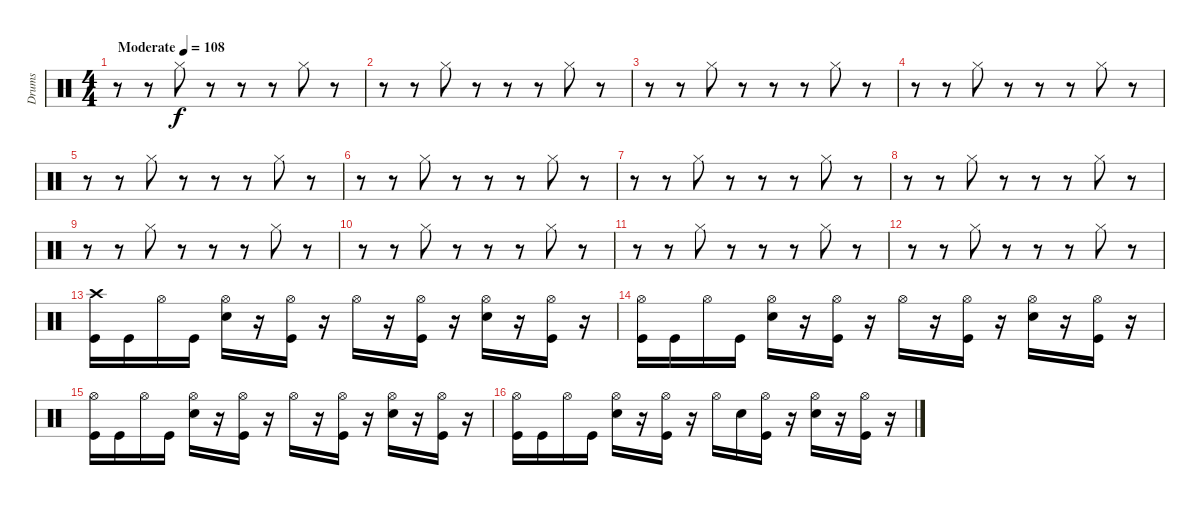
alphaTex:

\track ("Drums" "Drums") {instrument percussion}
\staff {score}
\articulation defaults
\ts (4 4)
\tempo (108 "Moderate")
\clef neutral
\ks c
r.8{dy f} r.8 "Hi-Hat (closed)".8 r.8 r.8 r.8 "Hi-Hat (closed)".8 r.8 |
r.8 r.8 "Hi-Hat (closed)".8 r.8 r.8 r.8 "Hi-Hat (closed)".8 r.8 |
r.8 r.8 "Hi-Hat (closed)".8 r.8 r.8 r.8 "Hi-Hat (closed)".8 r.8 |
r.8 r.8 "Hi-Hat (closed)".8 r.8 r.8 r.8 "Hi-Hat (closed)".8 r.8 |
r.8 r.8 "Hi-Hat (closed)".8 r.8 r.8 r.8 "Hi-Hat (closed)".8 r.8 |
r.8 r.8 "Hi-Hat (closed)".8 r.8 r.8 r.8 "Hi-Hat (closed)".8 r.8 |
r.8 r.8 "Hi-Hat (closed)".8 r.8 r.8 r.8 "Hi-Hat (closed)".8 r.8 |
r.8 r.8 "Hi-Hat (closed)".8 r.8 r.8 r.8 "Hi-Hat (closed)".8 r.8 |
r.8 r.8 "Hi-Hat (closed)".8 r.8 r.8 r.8 "Hi-Hat (closed)".8 r.8 |
r.8 r.8 "Hi-Hat (closed)".8 r.8 r.8 r.8 "Hi-Hat (closed)".8 r.8 |
r.8 r.8 "Hi-Hat (closed)".8 r.8 r.8 r.8 "Hi-Hat (closed)".8 r.8 |
r.8 r.8 "Hi-Hat (closed)".8 r.8 r.8 r.8 "Hi-Hat (closed)".8 r.8 |
("Crash high (hit)" "Kick (hit)").16 "Kick (hit)".16 "Hi-Hat (open)".16 "Kick (hit)".16 ("Hi-Hat (open)" "Electric Snare (hit)").16 r.16 ("Hi-Hat (open)" "Kick (hit)").16 r.16 "Hi-Hat (open)".16 r.16 ("Hi-Hat (open)" "Kick (hit)").16 r.16 ("Hi-Hat (open)" "Electric Snare (hit)").16 r.16 ("Hi-Hat (open)" "Kick (hit)").16 r.16 |
("Hi-Hat (open)" "Kick (hit)").16 "Kick (hit)".16 "Hi-Hat (open)".16 "Kick (hit)".16 ("Hi-Hat (open)" "Electric Snare (hit)").16 r.16 ("Hi-Hat (open)" "Kick (hit)").16 r.16 "Hi-Hat (open)".16 r.16 ("Hi-Hat (open)" "Kick (hit)").16 r.16 ("Hi-Hat (open)" "Electric Snare (hit)").16 r.16 ("Hi-Hat (open)" "Kick (hit)").16 r.16 |
("Hi-Hat (open)" "Kick (hit)").16 "Kick (hit)".16 "Hi-Hat (open)".16 "Kick (hit)".16 ("Hi-Hat (open)" "Electric Snare (hit)").16 r.16 ("Hi-Hat (open)" "Kick (hit)").16 r.16 "Hi-Hat (open)".16 r.16 ("Hi-Hat (open)" "Kick (hit)").16 r.16 ("Hi-Hat (open)" "Electric Snare (hit)").16 r.16 ("Hi-Hat (open)" "Kick (hit)").16 r.16 |
("Hi-Hat (open)" "Kick (hit)").16 "Kick (hit)".16 "Hi-Hat (open)".16 "Kick (hit)".16 ("Hi-Hat (open)" "Electric Snare (hit)").16 r.16 ("Hi-Hat (open)" "Kick (hit)").16 r.16 "Hi-Hat (open)".16 "Electric Snare (hit)".16 ("Hi-Hat (open)" "Kick (hit)").16 r.16 ("Hi-Hat (open)" "Electric Snare (hit)").16 r.16 ("Hi-Hat (open)" "Kick (hit)").16 r.16
